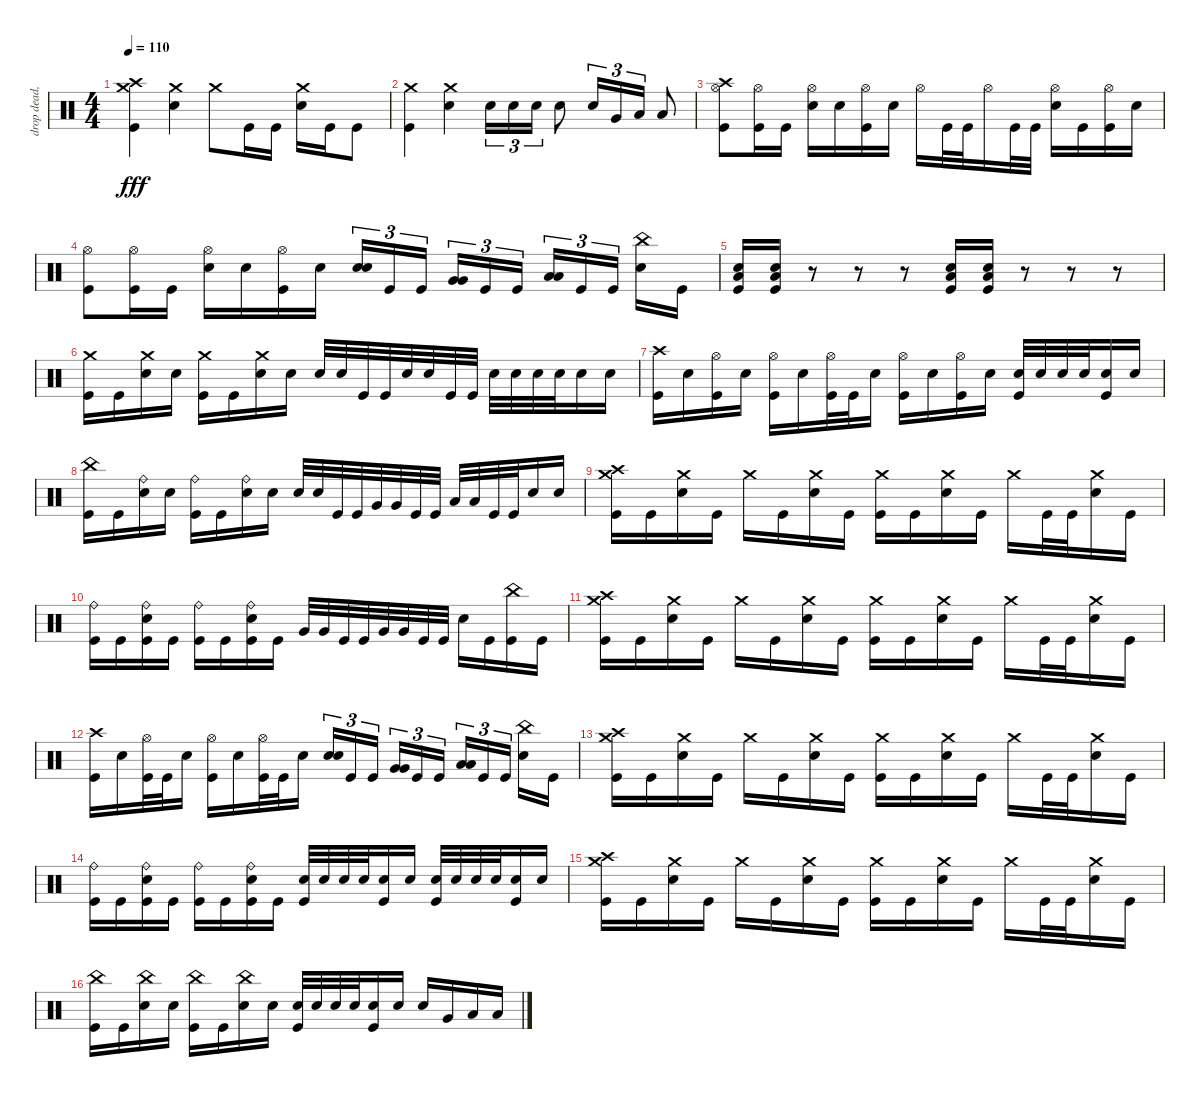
\track ("drop dead, johnny" "drop dead,") {instrument percussion}
\staff {score}
\articulation defaults
\ts (4 4)
\tempo 110
\clef neutral
\ks c
("Crash high (hit)" "Crash medium (hit)" "Kick (hit)").4{dy fff} ("Crash medium (hit)" "Electric Snare (hit)").4 "Crash medium (hit)".8 "Kick (hit)".16 "Kick (hit)".16 ("Crash medium (hit)" "Electric Snare (hit)").16 "Kick (hit)".16 "Kick (hit)".8 |
("Crash medium (hit)" "Kick (hit)").4 ("Crash medium (hit)" "Electric Snare (hit)").4 "Electric Snare (hit)".16{tu (3 2)} "Electric Snare (hit)".16{tu (3 2)} "Electric Snare (hit)".16{tu (3 2)} "Electric Snare (hit)".8 "Electric Snare (hit)".16{tu (3 2)} "Very Low Tom (hit)".16{tu (3 2)} "Low Floor Tom (hit)".16{tu (3 2)} "Low Floor Tom (hit)".8 |
("Crash high (hit)" "Hi-Hat (open)" "Kick (hit)").8 ("Hi-Hat (open)" "Kick (hit)").16 "Kick (hit)".16 ("Hi-Hat (open)" "Electric Snare (hit)").16 "Electric Snare (hit)".16 ("Hi-Hat (open)" "Kick (hit)").16 "Electric Snare (hit)".16 "Hi-Hat (open)".16 "Kick (hit)".32 "Kick (hit)".32 "Hi-Hat (open)".16 "Kick (hit)".32 "Kick (hit)".32 ("Hi-Hat (open)" "Electric Snare (hit)").16 "Kick (hit)".16 ("Hi-Hat (open)" "Kick (hit)").16 "Electric Snare (hit)".16 |
("Hi-Hat (open)" "Kick (hit)").8 ("Hi-Hat (open)" "Kick (hit)").16 "Kick (hit)".16 ("Hi-Hat (open)" "Electric Snare (hit)").16 "Electric Snare (hit)".16 ("Hi-Hat (open)" "Kick (hit)").16 "Electric Snare (hit)".16 ("Electric Snare (hit)" "Electric Snare (hit)").16{tu (3 2)} "Kick (hit)".16{tu (3 2)} "Kick (hit)".16{tu (3 2) beam splitsecondary} ("Very Low Tom (hit)" "Very Low Tom (hit)").16{tu (3 2)} "Kick (hit)".16{tu (3 2)} "Kick (hit)".16{tu (3 2)} ("Low Floor Tom (hit)" "Low Floor Tom (hit)").16{tu (3 2)} "Kick (hit)".16{tu (3 2)} "Kick (hit)".16{tu (3 2) beam splitsecondary} ("China (hit)" "Electric Snare (hit)").16 "Kick (hit)".16 |
("Low Floor Tom (hit)" "Electric Snare (hit)" "Kick (hit)").16 ("Low Floor Tom (hit)" "Electric Snare (hit)" "Kick (hit)").16 r.8 r.8 r.8 ("Low Floor Tom (hit)" "Electric Snare (hit)" "Kick (hit)").16 ("Low Floor Tom (hit)" "Electric Snare (hit)" "Kick (hit)").16 r.8 r.8 r.8 |
("Crash medium (hit)" "Kick (hit)").16 "Kick (hit)".16 ("Crash medium (hit)" "Electric Snare (hit)").16 "Electric Snare (hit)".16 ("Crash medium (hit)" "Kick (hit)").16 "Kick (hit)".16 ("Crash medium (hit)" "Electric Snare (hit)").16 "Electric Snare (hit)".16 "Electric Snare (hit)".32 "Electric Snare (hit)".32 "Kick (hit)".32 "Kick (hit)".32 "Electric Snare (hit)".32 "Electric Snare (hit)".32 "Kick (hit)".32 "Kick (hit)".32 "Electric Snare (hit)".32 "Electric Snare (hit)".32 "Electric Snare (hit)".32 "Electric Snare (hit)".32 "Electric Snare (hit)".16 "Electric Snare (hit)".16 |
("Crash high (hit)" "Kick (hit)").16 "Electric Snare (hit)".16 ("Hi-Hat (open)" "Kick (hit)").16 "Electric Snare (hit)".16 ("Hi-Hat (open)" "Kick (hit)").16 "Electric Snare (hit)".16 ("Hi-Hat (open)" "Kick (hit)").32 "Kick (hit)".32 "Electric Snare (hit)".16 ("Hi-Hat (open)" "Kick (hit)").16 "Electric Snare (hit)".16 ("Hi-Hat (open)" "Kick (hit)").16 "Electric Snare (hit)".16 ("Electric Snare (hit)" "Kick (hit)").32 "Electric Snare (hit)".32 "Electric Snare (hit)".32 "Electric Snare (hit)".32 ("Electric Snare (hit)" "Kick (hit)").16 "Electric Snare (hit)".16 |
("China (hit)" "Kick (hit)").16 "Kick (hit)".16 ("Ride (bell)" "Electric Snare (hit)").16 "Electric Snare (hit)".16 ("Ride (bell)" "Kick (hit)").16 "Kick (hit)".16 ("Ride (bell)" "Electric Snare (hit)").16 "Electric Snare (hit)".16 "Electric Snare (hit)".32 "Electric Snare (hit)".32 "Kick (hit)".32 "Kick (hit)".32 "Very Low Tom (hit)".32 "Very Low Tom (hit)".32 "Kick (hit)".32 "Kick (hit)".32 "Low Floor Tom (hit)".32 "Low Floor Tom (hit)".32 "Kick (hit)".32 "Kick (hit)".32 "Electric Snare (hit)".16 "Electric Snare (hit)".16 |
("Crash high (hit)" "Crash medium (hit)" "Kick (hit)").16 "Kick (hit)".16 ("Crash medium (hit)" "Electric Snare (hit)").16 "Kick (hit)".16 "Crash medium (hit)".16 "Kick (hit)".16 ("Crash medium (hit)" "Electric Snare (hit)").16 "Kick (hit)".16 ("Crash medium (hit)" "Kick (hit)").16 "Kick (hit)".16 ("Crash medium (hit)" "Electric Snare (hit)").16 "Kick (hit)".16 "Crash medium (hit)".16 "Kick (hit)".32 "Kick (hit)".32 ("Crash medium (hit)" "Electric Snare (hit)").16 "Kick (hit)".16 |
("Ride (bell)" "Kick (hit)").16 "Kick (hit)".16 ("Ride (bell)" "Electric Snare (hit)" "Kick (hit)").16 "Kick (hit)".16 ("Ride (bell)" "Kick (hit)").16 "Kick (hit)".16 ("Ride (bell)" "Electric Snare (hit)" "Kick (hit)").16 "Kick (hit)".16 "Very Low Tom (hit)".32 "Very Low Tom (hit)".32 "Kick (hit)".32 "Kick (hit)".32 "Very Low Tom (hit)".32 "Very Low Tom (hit)".32 "Kick (hit)".32 "Kick (hit)".32 "Electric Snare (hit)".16 "Kick (hit)".16 ("China (hit)" "Kick (hit)").16 "Kick (hit)".16 |
("Crash high (hit)" "Crash medium (hit)" "Kick (hit)").16 "Kick (hit)".16 ("Crash medium (hit)" "Electric Snare (hit)").16 "Kick (hit)".16 "Crash medium (hit)".16 "Kick (hit)".16 ("Crash medium (hit)" "Electric Snare (hit)").16 "Kick (hit)".16 ("Crash medium (hit)" "Kick (hit)").16 "Kick (hit)".16 ("Crash medium (hit)" "Electric Snare (hit)").16 "Kick (hit)".16 "Crash medium (hit)".16 "Kick (hit)".32 "Kick (hit)".32 ("Crash medium (hit)" "Electric Snare (hit)").16 "Kick (hit)".16 |
("Crash high (hit)" "Kick (hit)").16 "Electric Snare (hit)".16 ("Hi-Hat (open)" "Kick (hit)").32 "Kick (hit)".32 "Electric Snare (hit)".16 ("Hi-Hat (open)" "Kick (hit)").16 "Electric Snare (hit)".16 ("Hi-Hat (open)" "Kick (hit)").32 "Kick (hit)".32 "Electric Snare (hit)".16 ("Electric Snare (hit)" "Electric Snare (hit)").16{tu (3 2)} "Kick (hit)".16{tu (3 2)} "Kick (hit)".16{tu (3 2) beam splitsecondary} ("Very Low Tom (hit)" "Very Low Tom (hit)").16{tu (3 2)} "Kick (hit)".16{tu (3 2)} "Kick (hit)".16{tu (3 2)} ("Low Floor Tom (hit)" "Low Floor Tom (hit)").16{tu (3 2)} "Kick (hit)".16{tu (3 2)} "Kick (hit)".16{tu (3 2) beam splitsecondary} ("China (hit)" "Electric Snare (hit)").16 "Kick (hit)".16 |
("Crash high (hit)" "Crash medium (hit)" "Kick (hit)").16 "Kick (hit)".16 ("Crash medium (hit)" "Electric Snare (hit)").16 "Kick (hit)".16 "Crash medium (hit)".16 "Kick (hit)".16 ("Crash medium (hit)" "Electric Snare (hit)").16 "Kick (hit)".16 ("Crash medium (hit)" "Kick (hit)").16 "Kick (hit)".16 ("Crash medium (hit)" "Electric Snare (hit)").16 "Kick (hit)".16 "Crash medium (hit)".16 "Kick (hit)".32 "Kick (hit)".32 ("Crash medium (hit)" "Electric Snare (hit)").16 "Kick (hit)".16 |
("Ride (bell)" "Kick (hit)").16 "Kick (hit)".16 ("Ride (bell)" "Electric Snare (hit)" "Kick (hit)").16 "Kick (hit)".16 ("Ride (bell)" "Kick (hit)").16 "Kick (hit)".16 ("Ride (bell)" "Electric Snare (hit)" "Kick (hit)").16 "Kick (hit)".16 ("Electric Snare (hit)" "Kick (hit)").32 "Electric Snare (hit)".32 "Electric Snare (hit)".32 "Electric Snare (hit)".32 ("Electric Snare (hit)" "Kick (hit)").16 "Electric Snare (hit)".16 ("Electric Snare (hit)" "Kick (hit)").32 "Electric Snare (hit)".32 "Electric Snare (hit)".32 "Electric Snare (hit)".32 ("Electric Snare (hit)" "Kick (hit)").16 "Electric Snare (hit)".16 |
("Crash high (hit)" "Crash medium (hit)" "Kick (hit)").16 "Kick (hit)".16 ("Crash medium (hit)" "Electric Snare (hit)").16 "Kick (hit)".16 "Crash medium (hit)".16 "Kick (hit)".16 ("Crash medium (hit)" "Electric Snare (hit)").16 "Kick (hit)".16 ("Crash medium (hit)" "Kick (hit)").16 "Kick (hit)".16 ("Crash medium (hit)" "Electric Snare (hit)").16 "Kick (hit)".16 "Crash medium (hit)".16 "Kick (hit)".32 "Kick (hit)".32 ("Crash medium (hit)" "Electric Snare (hit)").16 "Kick (hit)".16 |
("China (hit)" "Kick (hit)").16 "Kick (hit)".16 ("China (hit)" "Electric Snare (hit)").16 "Electric Snare (hit)".16 ("China (hit)" "Kick (hit)").16 "Kick (hit)".16 ("China (hit)" "Electric Snare (hit)").16 "Electric Snare (hit)".16 ("Electric Snare (hit)" "Kick (hit)").32 "Electric Snare (hit)".32 "Electric Snare (hit)".32 "Electric Snare (hit)".32 ("Electric Snare (hit)" "Kick (hit)").16 "Electric Snare (hit)".16 "Electric Snare (hit)".16 "Very Low Tom (hit)".16 "Low Floor Tom (hit)".16 "Low Floor Tom (hit)".16
